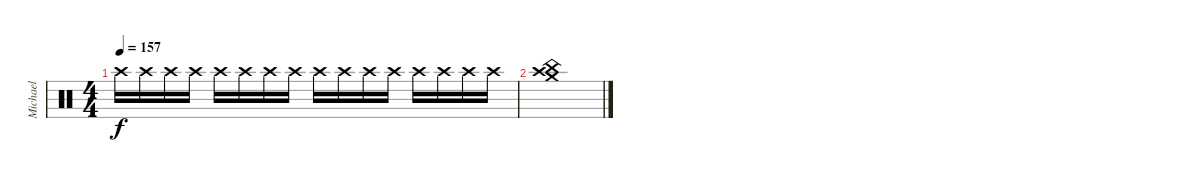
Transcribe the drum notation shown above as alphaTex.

\track ("Michael" "Michael") {instrument percussion}
\staff {score}
\articulation defaults
\ts (4 4)
\tempo 157
\clef neutral
\ks c "Crash high (hit)".16{dy f} "Crash high (hit)".16 "Crash high (hit)".16 "Crash high (hit)".16 "Crash high (hit)".16 "Crash high (hit)".16 "Crash high (hit)".16 "Crash high (hit)".16 "Crash high (hit)".16 "Crash high (hit)".16 "Crash high (hit)".16 "Crash high (hit)".16 "Crash high (hit)".16 "Crash high (hit)".16 "Crash high (hit)".16 "Crash high (hit)".16
|
("Crash medium (hit)" "China (hit)" "Crash high (hit)").1
